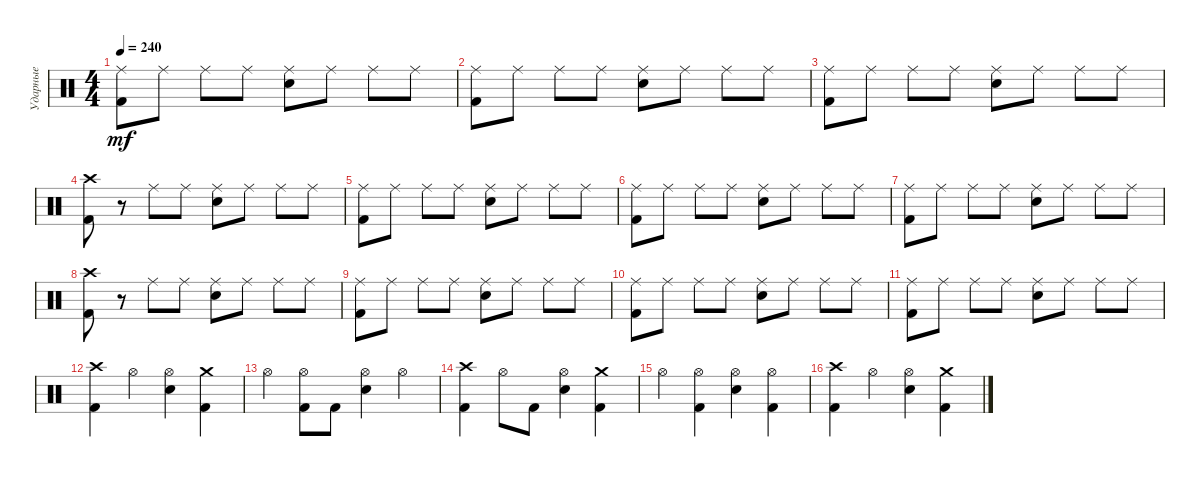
\track ("Ударные" "Ударные") {instrument percussion}
\staff {score}
\articulation defaults
\ts (4 4)
\tempo 240
\clef neutral
\ks c
("Ride (middle)" "Kick (hit) 2").8{dy mf} "Ride (middle)".8 "Ride (middle)".8 "Ride (middle)".8 ("Ride (middle)" "Snare (hit) 2").8 "Ride (middle)".8 "Ride (middle)".8 "Ride (middle)".8 |
("Ride (middle)" "Kick (hit) 2").8 "Ride (middle)".8 "Ride (middle)".8 "Ride (middle)".8 ("Ride (middle)" "Snare (hit) 2").8 "Ride (middle)".8 "Ride (middle)".8 "Ride (middle)".8 |
("Ride (middle)" "Kick (hit) 2").8 "Ride (middle)".8 "Ride (middle)".8 "Ride (middle)".8 ("Ride (middle)" "Snare (hit) 2").8 "Ride (middle)".8 "Ride (middle)".8 "Ride (middle)".8 |
("Crash high (hit)" "Kick (hit) 2").8 r.8 "Ride (middle)".8 "Ride (middle)".8 ("Ride (middle)" "Snare (hit) 2").8 "Ride (middle)".8 "Ride (middle)".8 "Ride (middle)".8 |
("Ride (middle)" "Kick (hit) 2").8 "Ride (middle)".8 "Ride (middle)".8 "Ride (middle)".8 ("Ride (middle)" "Snare (hit) 2").8 "Ride (middle)".8 "Ride (middle)".8 "Ride (middle)".8 |
("Ride (middle)" "Kick (hit) 2").8 "Ride (middle)".8 "Ride (middle)".8 "Ride (middle)".8 ("Ride (middle)" "Snare (hit) 2").8 "Ride (middle)".8 "Ride (middle)".8 "Ride (middle)".8 |
("Ride (middle)" "Kick (hit) 2").8 "Ride (middle)".8 "Ride (middle)".8 "Ride (middle)".8 ("Ride (middle)" "Snare (hit) 2").8 "Ride (middle)".8 "Ride (middle)".8 "Ride (middle)".8 |
("Crash high (hit)" "Kick (hit) 2").8 r.8 "Ride (middle)".8 "Ride (middle)".8 ("Ride (middle)" "Snare (hit) 2").8 "Ride (middle)".8 "Ride (middle)".8 "Ride (middle)".8 |
("Ride (middle)" "Kick (hit) 2").8 "Ride (middle)".8 "Ride (middle)".8 "Ride (middle)".8 ("Ride (middle)" "Snare (hit) 2").8 "Ride (middle)".8 "Ride (middle)".8 "Ride (middle)".8 |
("Ride (middle)" "Kick (hit) 2").8 "Ride (middle)".8 "Ride (middle)".8 "Ride (middle)".8 ("Ride (middle)" "Snare (hit) 2").8 "Ride (middle)".8 "Ride (middle)".8 "Ride (middle)".8 |
("Ride (middle)" "Kick (hit) 2").8 "Ride (middle)".8 "Ride (middle)".8 "Ride (middle)".8 ("Ride (middle)" "Snare (hit) 2").8 "Ride (middle)".8 "Ride (middle)".8 "Ride (middle)".8 |
("Crash high (hit)" "Kick (hit) 2").4 "Hi-Hat (open)".4 ("Hi-Hat (open)" "Snare (hit) 2").4 ("Crash medium (hit)" "Kick (hit) 2").4 |
"Hi-Hat (open)".4 ("Hi-Hat (open)" "Kick (hit) 2").8 "Kick (hit) 2".8 ("Hi-Hat (open)" "Snare (hit) 2").4 "Hi-Hat (open)".4 |
("Crash high (hit)" "Kick (hit) 2").4 "Hi-Hat (open)".8 "Kick (hit) 2".8 ("Hi-Hat (open)" "Snare (hit) 2").4 ("Crash medium (hit)" "Kick (hit) 2").4 |
"Hi-Hat (open)".4 ("Hi-Hat (open)" "Kick (hit) 2").4 ("Hi-Hat (open)" "Snare (hit) 2").4 ("Hi-Hat (open)" "Kick (hit) 2").4 |
("Crash high (hit)" "Kick (hit) 2").4 "Hi-Hat (open)".4 ("Hi-Hat (open)" "Snare (hit) 2").4 ("Crash medium (hit)" "Kick (hit) 2").4
